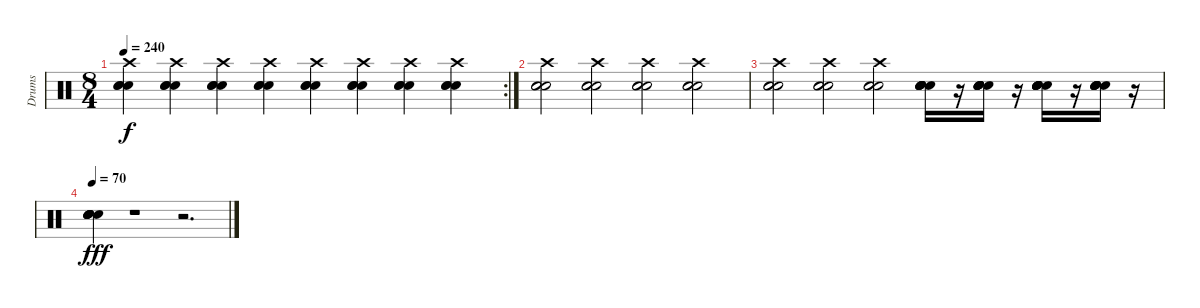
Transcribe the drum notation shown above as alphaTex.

\track ("Drums" "Drums") {instrument percussion}
\staff {score}
\articulation defaults
\rc 2
\ts (8 4)
\tempo 240
\clef neutral
\ks c
("Crash high (hit)" "Snare (hit) 2" "Snare (hit) 2" "Snare (hit) 2").4{dy f} ("Crash high (hit)" "Snare (hit) 2" "Snare (hit) 2" "Snare (hit) 2").4 ("Crash high (hit)" "Snare (hit) 2" "Snare (hit) 2" "Snare (hit) 2").4 ("Crash high (hit)" "Snare (hit) 2" "Snare (hit) 2" "Snare (hit) 2").4 ("Crash high (hit)" "Snare (hit) 2" "Snare (hit) 2" "Snare (hit) 2").4 ("Crash high (hit)" "Snare (hit) 2" "Snare (hit) 2" "Snare (hit) 2").4 ("Crash high (hit)" "Snare (hit) 2" "Snare (hit) 2" "Snare (hit) 2").4 ("Crash high (hit)" "Snare (hit) 2" "Snare (hit) 2" "Snare (hit) 2").4 |
("Crash high (hit)" "Snare (hit) 2" "Snare (hit) 2" "Snare (hit) 2").2 ("Crash high (hit)" "Snare (hit) 2" "Snare (hit) 2" "Snare (hit) 2").2 ("Crash high (hit)" "Snare (hit) 2" "Snare (hit) 2" "Snare (hit) 2").2 ("Crash high (hit)" "Snare (hit) 2" "Snare (hit) 2" "Snare (hit) 2").2 |
("Crash high (hit)" "Snare (hit) 2" "Snare (hit) 2" "Snare (hit) 2").2 ("Crash high (hit)" "Snare (hit) 2" "Snare (hit) 2" "Snare (hit) 2").2 ("Crash high (hit)" "Snare (hit) 2" "Snare (hit) 2" "Snare (hit) 2").2 ("Snare (hit) 2" "Snare (hit) 2" "Snare (hit) 2" "Snare (hit) 2" "Snare (hit) 2" "Snare (hit) 2").16 r.16 ("Snare (hit) 2" "Snare (hit) 2" "Snare (hit) 2" "Snare (hit) 2" "Snare (hit) 2" "Snare (hit) 2").16 r.16 ("Snare (hit) 2" "Snare (hit) 2" "Snare (hit) 2" "Snare (hit) 2" "Snare (hit) 2" "Snare (hit) 2").16 r.16 ("Snare (hit) 2" "Snare (hit) 2" "Snare (hit) 2" "Snare (hit) 2" "Snare (hit) 2" "Snare (hit) 2").16 r.16 |
\tempo 70
("Snare (hit) 2" "Snare (hit) 2" "Snare (hit) 2" "Snare (hit) 2" "Snare (hit) 2" "Snare (hit) 2").4{dy fff} r.1 r.2{d}
